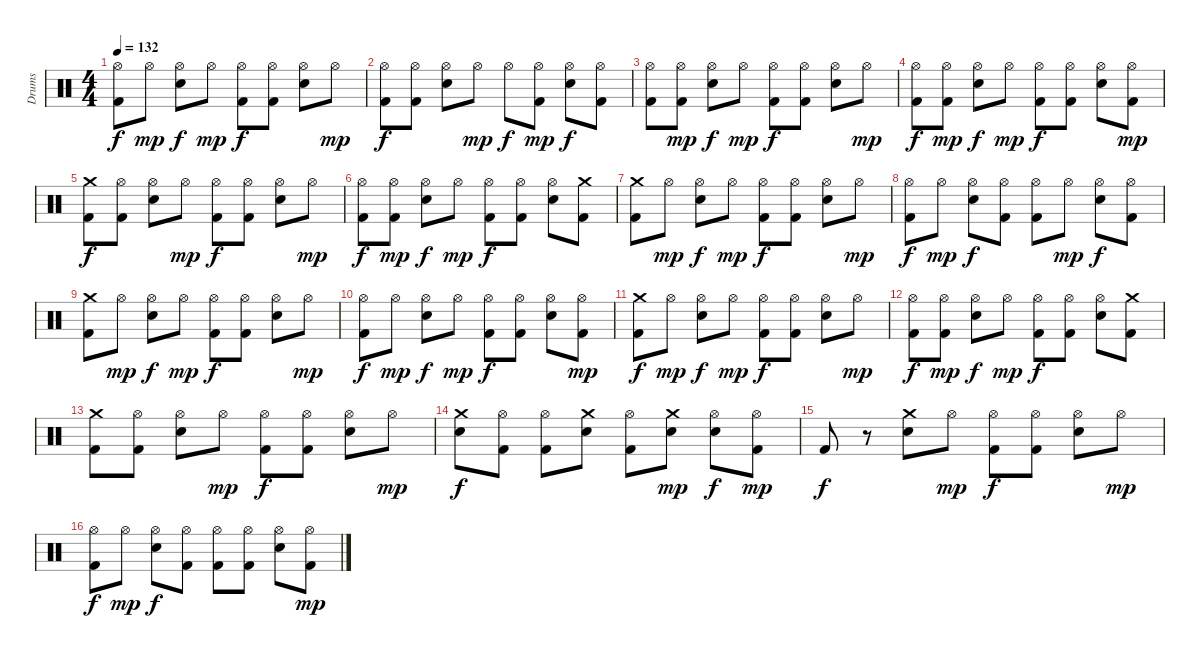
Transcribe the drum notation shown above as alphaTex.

\track ("Drums" "Drums") {instrument percussion}
\staff {score}
\articulation defaults
\ts (4 4)
\tempo 132
\clef neutral
\ks c
("Hi-Hat (open)" "Kick (hit) 2").8{dy f} "Hi-Hat (open)".8{dy mp} ("Hi-Hat (open)" "Snare (hit) 2").8{dy f} "Hi-Hat (open)".8{dy mp} ("Hi-Hat (open)" "Kick (hit) 2").8{dy f} ("Hi-Hat (open)" "Kick (hit) 2").8 ("Hi-Hat (open)" "Snare (hit) 2").8 "Hi-Hat (open)".8{dy mp} |
("Hi-Hat (open)" "Kick (hit) 2").8{dy f} ("Hi-Hat (open)" "Kick (hit) 2").8 ("Hi-Hat (open)" "Snare (hit) 2").8 "Hi-Hat (open)".8{dy mp} "Hi-Hat (open)".8{dy f} ("Hi-Hat (open)" "Kick (hit) 2").8{dy mp} ("Hi-Hat (open)" "Snare (hit) 2").8{dy f} ("Hi-Hat (open)" "Kick (hit) 2").8 |
("Hi-Hat (open)" "Kick (hit) 2").8 ("Hi-Hat (open)" "Kick (hit) 2").8{dy mp} ("Hi-Hat (open)" "Snare (hit) 2").8{dy f} "Hi-Hat (open)".8{dy mp} ("Hi-Hat (open)" "Kick (hit) 2").8{dy f} ("Hi-Hat (open)" "Kick (hit) 2").8 ("Hi-Hat (open)" "Snare (hit) 2").8 "Hi-Hat (open)".8{dy mp} |
("Hi-Hat (open)" "Kick (hit) 2").8{dy f} ("Hi-Hat (open)" "Kick (hit) 2").8{dy mp} ("Hi-Hat (open)" "Snare (hit) 2").8{dy f} "Hi-Hat (open)".8{dy mp} ("Hi-Hat (open)" "Kick (hit) 2").8{dy f} ("Hi-Hat (open)" "Kick (hit) 2").8 ("Hi-Hat (open)" "Snare (hit) 2").8 ("Hi-Hat (open)" "Kick (hit) 2").8{dy mp} |
("Crash medium (hit)" "Kick (hit) 2").8{dy f} ("Hi-Hat (open)" "Kick (hit) 2").8 ("Hi-Hat (open)" "Snare (hit) 2").8 "Hi-Hat (open)".8{dy mp} ("Hi-Hat (open)" "Kick (hit) 2").8{dy f} ("Hi-Hat (open)" "Kick (hit) 2").8 ("Hi-Hat (open)" "Snare (hit) 2").8 "Hi-Hat (open)".8{dy mp} |
("Hi-Hat (open)" "Kick (hit) 2").8{dy f} ("Hi-Hat (open)" "Kick (hit) 2").8{dy mp} ("Hi-Hat (open)" "Snare (hit) 2").8{dy f} "Hi-Hat (open)".8{dy mp} ("Hi-Hat (open)" "Kick (hit) 2").8{dy f} ("Hi-Hat (open)" "Kick (hit) 2").8 ("Hi-Hat (open)" "Snare (hit) 2").8 ("Crash medium (hit)" "Kick (hit) 2").8 |
("Crash medium (hit)" "Kick (hit) 2").8 "Hi-Hat (open)".8{dy mp} ("Hi-Hat (open)" "Snare (hit) 2").8{dy f} "Hi-Hat (open)".8{dy mp} ("Hi-Hat (open)" "Kick (hit) 2").8{dy f} ("Hi-Hat (open)" "Kick (hit) 2").8 ("Hi-Hat (open)" "Snare (hit) 2").8 "Hi-Hat (open)".8{dy mp} |
("Hi-Hat (open)" "Kick (hit) 2").8{dy f} "Hi-Hat (open)".8{dy mp} ("Hi-Hat (open)" "Snare (hit) 2").8{dy f} ("Hi-Hat (open)" "Kick (hit) 2").8 ("Hi-Hat (open)" "Kick (hit) 2").8 "Hi-Hat (open)".8{dy mp} ("Hi-Hat (open)" "Snare (hit) 2").8{dy f} ("Hi-Hat (open)" "Kick (hit) 2").8 |
("Crash medium (hit)" "Kick (hit) 2").8 "Hi-Hat (open)".8{dy mp} ("Hi-Hat (open)" "Snare (hit) 2").8{dy f} "Hi-Hat (open)".8{dy mp} ("Hi-Hat (open)" "Kick (hit) 2").8{dy f} ("Hi-Hat (open)" "Kick (hit) 2").8 ("Hi-Hat (open)" "Snare (hit) 2").8 "Hi-Hat (open)".8{dy mp} |
("Hi-Hat (open)" "Kick (hit) 2").8{dy f} "Hi-Hat (open)".8{dy mp} ("Hi-Hat (open)" "Snare (hit) 2").8{dy f} "Hi-Hat (open)".8{dy mp} ("Hi-Hat (open)" "Kick (hit) 2").8{dy f} ("Hi-Hat (open)" "Kick (hit) 2").8 ("Hi-Hat (open)" "Snare (hit) 2").8 ("Hi-Hat (open)" "Kick (hit) 2").8{dy mp} |
("Crash medium (hit)" "Kick (hit) 2").8{dy f} "Hi-Hat (open)".8{dy mp} ("Hi-Hat (open)" "Snare (hit) 2").8{dy f} "Hi-Hat (open)".8{dy mp} ("Hi-Hat (open)" "Kick (hit) 2").8{dy f} ("Hi-Hat (open)" "Kick (hit) 2").8 ("Hi-Hat (open)" "Snare (hit) 2").8 "Hi-Hat (open)".8{dy mp} |
("Hi-Hat (open)" "Kick (hit) 2").8{dy f} ("Hi-Hat (open)" "Kick (hit) 2").8{dy mp} ("Hi-Hat (open)" "Snare (hit) 2").8{dy f} "Hi-Hat (open)".8{dy mp} ("Hi-Hat (open)" "Kick (hit) 2").8{dy f} ("Hi-Hat (open)" "Kick (hit) 2").8 ("Hi-Hat (open)" "Snare (hit) 2").8 ("Crash medium (hit)" "Kick (hit) 2").8 |
("Crash medium (hit)" "Kick (hit) 2").8 ("Hi-Hat (open)" "Kick (hit) 2").8 ("Hi-Hat (open)" "Snare (hit) 2").8 "Hi-Hat (open)".8{dy mp} ("Hi-Hat (open)" "Kick (hit) 2").8{dy f} ("Hi-Hat (open)" "Kick (hit) 2").8 ("Hi-Hat (open)" "Snare (hit) 2").8 "Hi-Hat (open)".8{dy mp} |
("Crash medium (hit)" "Snare (hit) 2").8{dy f} ("Hi-Hat (open)" "Kick (hit) 2").8 ("Hi-Hat (open)" "Kick (hit) 2").8 ("Crash medium (hit)" "Snare (hit) 2").8 ("Hi-Hat (open)" "Kick (hit) 2").8 ("Crash medium (hit)" "Snare (hit) 2").8{dy mp} ("Hi-Hat (open)" "Snare (hit) 2").8{dy f} ("Hi-Hat (open)" "Kick (hit) 2").8{dy mp} |
"Kick (hit) 2".8{dy f} r.8 ("Crash medium (hit)" "Snare (hit) 2").8 "Hi-Hat (open)".8{dy mp} ("Hi-Hat (open)" "Kick (hit) 2").8{dy f} ("Hi-Hat (open)" "Kick (hit) 2").8 ("Hi-Hat (open)" "Snare (hit) 2").8 "Hi-Hat (open)".8{dy mp} |
("Hi-Hat (open)" "Kick (hit) 2").8{dy f} "Hi-Hat (open)".8{dy mp} ("Hi-Hat (open)" "Snare (hit) 2").8{dy f} ("Hi-Hat (open)" "Kick (hit) 2").8 ("Hi-Hat (open)" "Kick (hit) 2").8 ("Hi-Hat (open)" "Kick (hit) 2").8 ("Hi-Hat (open)" "Snare (hit) 2").8 ("Hi-Hat (open)" "Kick (hit) 2").8{dy mp}
